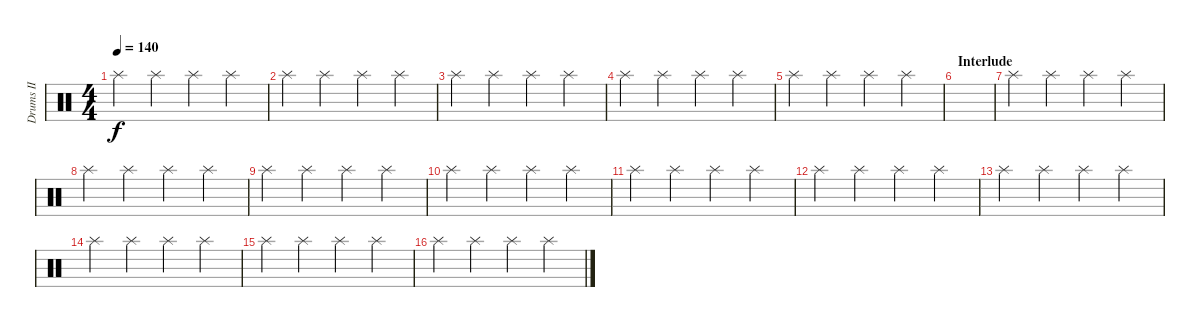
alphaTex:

\track ("Drums II" "Drums II") {instrument percussion}
\staff {score}
\articulation defaults
\ts (4 4)
\tempo 140
\clef neutral
\ks c "Splash (hit)".4{dy f} "Splash (hit)".4 "Splash (hit)".4 "Splash (hit)".4
|
"Splash (hit)".4 "Splash (hit)".4 "Splash (hit)".4 "Splash (hit)".4 |
"Splash (hit)".4 "Splash (hit)".4 "Splash (hit)".4 "Splash (hit)".4 |
"Splash (hit)".4 "Splash (hit)".4 "Splash (hit)".4 "Splash (hit)".4 |
"Splash (hit)".4 "Splash (hit)".4 "Splash (hit)".4 "Splash (hit)".4 |
\section ("" "Interlude")
|
"Splash (hit)".4 "Splash (hit)".4 "Splash (hit)".4 "Splash (hit)".4 |
"Splash (hit)".4 "Splash (hit)".4 "Splash (hit)".4 "Splash (hit)".4 |
"Splash (hit)".4 "Splash (hit)".4 "Splash (hit)".4 "Splash (hit)".4 |
"Splash (hit)".4 "Splash (hit)".4 "Splash (hit)".4 "Splash (hit)".4 |
"Splash (hit)".4 "Splash (hit)".4 "Splash (hit)".4 "Splash (hit)".4 |
"Splash (hit)".4 "Splash (hit)".4 "Splash (hit)".4 "Splash (hit)".4 |
"Splash (hit)".4 "Splash (hit)".4 "Splash (hit)".4 "Splash (hit)".4 |
"Splash (hit)".4 "Splash (hit)".4 "Splash (hit)".4 "Splash (hit)".4 |
"Splash (hit)".4 "Splash (hit)".4 "Splash (hit)".4 "Splash (hit)".4 |
"Splash (hit)".4 "Splash (hit)".4 "Splash (hit)".4 "Splash (hit)".4
